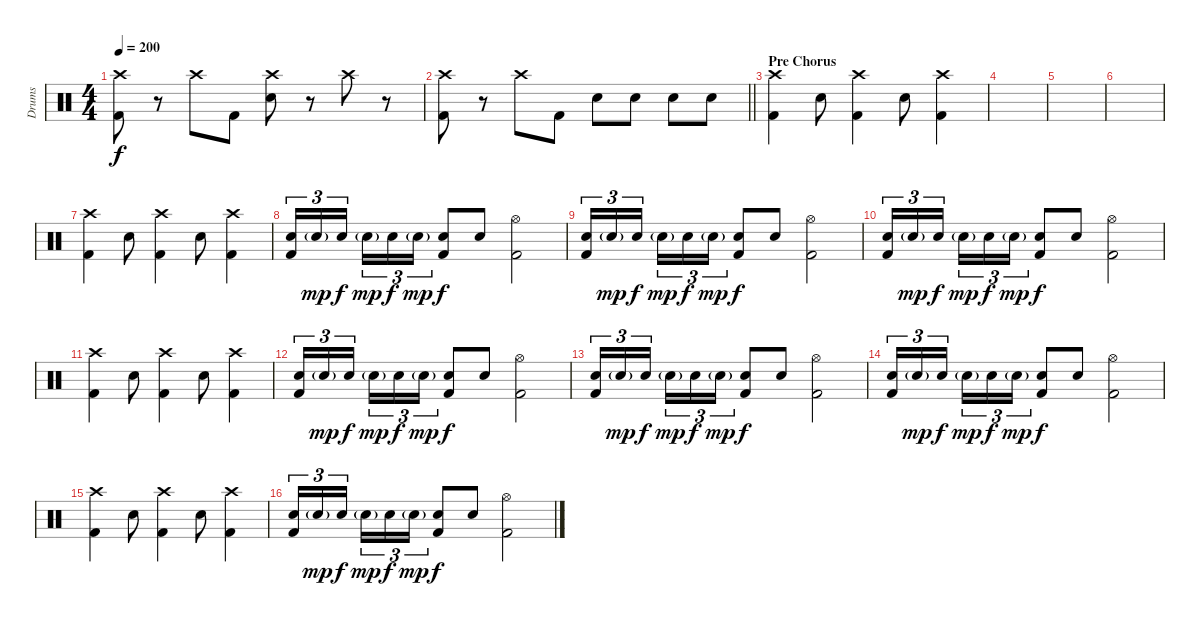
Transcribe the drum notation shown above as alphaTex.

\track ("Drums" "Drums") {instrument percussion}
\staff {score}
\articulation defaults
\ts (4 4)
\tempo 200
\clef neutral
\ks c
("Crash high (hit)" "Kick (hit) 2").8{dy f} r.8 "Crash high (hit)".8 "Kick (hit) 2".8 ("Crash high (hit)" "Electric Snare (hit)").8 r.8 "Crash high (hit)".8 r.8 |
\barLineRight lightlight
("Crash high (hit)" "Kick (hit) 2").8 r.8 "Crash high (hit)".8 "Kick (hit) 2".8 "Electric Snare (hit)".8 "Electric Snare (hit)".8 "Electric Snare (hit)".8 "Electric Snare (hit)".8 |
\section ("" "Pre Chorus")
("Crash high (hit)" "Kick (hit) 2").4 "Electric Snare (hit)".8 ("Crash high (hit)" "Kick (hit) 2").4 "Electric Snare (hit)".8 ("Crash high (hit)" "Kick (hit) 2").4 |
|
|
|
("Crash high (hit)" "Kick (hit) 2").4 "Electric Snare (hit)".8 ("Crash high (hit)" "Kick (hit) 2").4 "Electric Snare (hit)".8 ("Crash high (hit)" "Kick (hit) 2").4 |
("Electric Snare (hit)" "Kick (hit) 2").16{tu (3 2)} "Electric Snare (hit)"{g}.16{tu (3 2) dy mp} "Electric Snare (hit)".16{tu (3 2) dy f beam splitsecondary} "Electric Snare (hit)"{g}.16{tu (3 2) dy mp} "Electric Snare (hit)".16{tu (3 2) dy f} "Electric Snare (hit)"{g}.16{tu (3 2) dy mp} ("Electric Snare (hit)" "Kick (hit) 2").8{dy f} "Electric Snare (hit)".8 ("Hi-Hat (open)" "Kick (hit) 2").2 |
("Electric Snare (hit)" "Kick (hit) 2").16{tu (3 2)} "Electric Snare (hit)"{g}.16{tu (3 2) dy mp} "Electric Snare (hit)".16{tu (3 2) dy f beam splitsecondary} "Electric Snare (hit)"{g}.16{tu (3 2) dy mp} "Electric Snare (hit)".16{tu (3 2) dy f} "Electric Snare (hit)"{g}.16{tu (3 2) dy mp} ("Electric Snare (hit)" "Kick (hit) 2").8{dy f} "Electric Snare (hit)".8 ("Hi-Hat (open)" "Kick (hit) 2").2 |
("Electric Snare (hit)" "Kick (hit) 2").16{tu (3 2)} "Electric Snare (hit)"{g}.16{tu (3 2) dy mp} "Electric Snare (hit)".16{tu (3 2) dy f beam splitsecondary} "Electric Snare (hit)"{g}.16{tu (3 2) dy mp} "Electric Snare (hit)".16{tu (3 2) dy f} "Electric Snare (hit)"{g}.16{tu (3 2) dy mp} ("Electric Snare (hit)" "Kick (hit) 2").8{dy f} "Electric Snare (hit)".8 ("Hi-Hat (open)" "Kick (hit) 2").2 |
("Crash high (hit)" "Kick (hit) 2").4 "Electric Snare (hit)".8 ("Crash high (hit)" "Kick (hit) 2").4 "Electric Snare (hit)".8 ("Crash high (hit)" "Kick (hit) 2").4 |
("Electric Snare (hit)" "Kick (hit) 2").16{tu (3 2)} "Electric Snare (hit)"{g}.16{tu (3 2) dy mp} "Electric Snare (hit)".16{tu (3 2) dy f beam splitsecondary} "Electric Snare (hit)"{g}.16{tu (3 2) dy mp} "Electric Snare (hit)".16{tu (3 2) dy f} "Electric Snare (hit)"{g}.16{tu (3 2) dy mp} ("Electric Snare (hit)" "Kick (hit) 2").8{dy f} "Electric Snare (hit)".8 ("Hi-Hat (open)" "Kick (hit) 2").2 |
("Electric Snare (hit)" "Kick (hit) 2").16{tu (3 2)} "Electric Snare (hit)"{g}.16{tu (3 2) dy mp} "Electric Snare (hit)".16{tu (3 2) dy f beam splitsecondary} "Electric Snare (hit)"{g}.16{tu (3 2) dy mp} "Electric Snare (hit)".16{tu (3 2) dy f} "Electric Snare (hit)"{g}.16{tu (3 2) dy mp} ("Electric Snare (hit)" "Kick (hit) 2").8{dy f} "Electric Snare (hit)".8 ("Hi-Hat (open)" "Kick (hit) 2").2 |
("Electric Snare (hit)" "Kick (hit) 2").16{tu (3 2)} "Electric Snare (hit)"{g}.16{tu (3 2) dy mp} "Electric Snare (hit)".16{tu (3 2) dy f beam splitsecondary} "Electric Snare (hit)"{g}.16{tu (3 2) dy mp} "Electric Snare (hit)".16{tu (3 2) dy f} "Electric Snare (hit)"{g}.16{tu (3 2) dy mp} ("Electric Snare (hit)" "Kick (hit) 2").8{dy f} "Electric Snare (hit)".8 ("Hi-Hat (open)" "Kick (hit) 2").2 |
("Crash high (hit)" "Kick (hit) 2").4 "Electric Snare (hit)".8 ("Crash high (hit)" "Kick (hit) 2").4 "Electric Snare (hit)".8 ("Crash high (hit)" "Kick (hit) 2").4 |
("Electric Snare (hit)" "Kick (hit) 2").16{tu (3 2)} "Electric Snare (hit)"{g}.16{tu (3 2) dy mp} "Electric Snare (hit)".16{tu (3 2) dy f beam splitsecondary} "Electric Snare (hit)"{g}.16{tu (3 2) dy mp} "Electric Snare (hit)".16{tu (3 2) dy f} "Electric Snare (hit)"{g}.16{tu (3 2) dy mp} ("Electric Snare (hit)" "Kick (hit) 2").8{dy f} "Electric Snare (hit)".8 ("Hi-Hat (open)" "Kick (hit) 2").2
